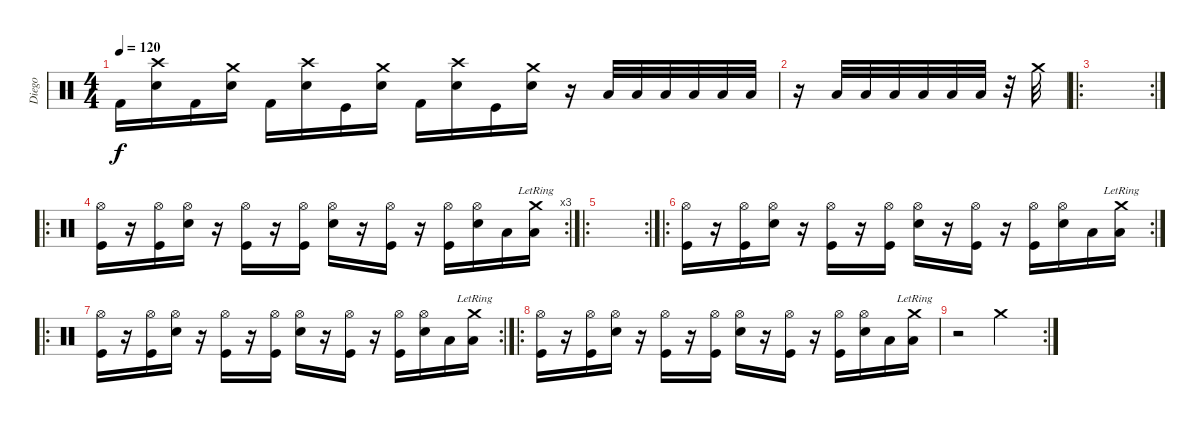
\track ("Diego" "Diego") {instrument percussion}
\staff {score}
\articulation defaults
\ts (4 4)
\tempo 120
\clef neutral
\ks c "Kick (hit) 2".16{dy f}
("Electric Snare (hit)" "Crash high (hit)").16 "Kick (hit) 2".16 ("Electric Snare (hit)" "Crash medium (hit)").16 "Kick (hit) 2".16 ("Electric Snare (hit)" "Crash high (hit)").16 "Kick (hit)".16 ("Electric Snare (hit)" "Crash medium (hit)").16 "Kick (hit) 2".16 ("Electric Snare (hit)" "Crash high (hit)").16 "Kick (hit)".16 ("Electric Snare (hit)" "Crash medium (hit)").16 r.16 "Low Tom (hit)".32 "Low Tom (hit)".32 "Low Tom (hit)".32 "Low Tom (hit)".32 "Low Tom (hit)".32 "Low Tom (hit)".32 |
r.16 "Low Floor Tom (hit)".32 "Low Floor Tom (hit)".32 "Low Floor Tom (hit)".32 "Low Floor Tom (hit)".32 "Low Floor Tom (hit)".32 "Low Floor Tom (hit)".32 r.32 "Crash medium (hit)".32 |
\ro
\rc 2
|
\ro
\rc 3
("Kick (hit)" "Hi-Hat (open)").16 r.16 ("Kick (hit)" "Hi-Hat (open)").16 ("Electric Snare (hit)" "Hi-Hat (open)").16 r.16 ("Kick (hit)" "Hi-Hat (open)").16 r.16 ("Kick (hit)" "Hi-Hat (open)").16 ("Electric Snare (hit)" "Hi-Hat (open)").16 r.16 ("Kick (hit)" "Hi-Hat (open)").16 r.16 ("Kick (hit)" "Hi-Hat (open)").16 ("Electric Snare (hit)" "Hi-Hat (open)").16 "Low Floor Tom (hit)".16 ("Low Tom (hit)" "Crash medium (hit)"{lr}).16 |
\ro
\rc 2
|
\ro
\rc 2
("Kick (hit)" "Hi-Hat (open)").16 r.16 ("Kick (hit)" "Hi-Hat (open)").16 ("Electric Snare (hit)" "Hi-Hat (open)").16 r.16 ("Kick (hit)" "Hi-Hat (open)").16 r.16 ("Kick (hit)" "Hi-Hat (open)").16 ("Electric Snare (hit)" "Hi-Hat (open)").16 r.16 ("Kick (hit)" "Hi-Hat (open)").16 r.16 ("Kick (hit)" "Hi-Hat (open)").16 ("Electric Snare (hit)" "Hi-Hat (open)").16 "Low Floor Tom (hit)".16 ("Low Tom (hit)" "Crash medium (hit)"{lr}).16 |
\ro
\rc 2
("Kick (hit)" "Hi-Hat (open)").16 r.16 ("Kick (hit)" "Hi-Hat (open)").16 ("Electric Snare (hit)" "Hi-Hat (open)").16 r.16 ("Kick (hit)" "Hi-Hat (open)").16 r.16 ("Kick (hit)" "Hi-Hat (open)").16 ("Electric Snare (hit)" "Hi-Hat (open)").16 r.16 ("Kick (hit)" "Hi-Hat (open)").16 r.16 ("Kick (hit)" "Hi-Hat (open)").16 ("Electric Snare (hit)" "Hi-Hat (open)").16 "Low Floor Tom (hit)".16 ("Low Tom (hit)" "Crash medium (hit)"{lr}).16 |
\ro
("Kick (hit)" "Hi-Hat (open)").16 r.16 ("Kick (hit)" "Hi-Hat (open)").16 ("Electric Snare (hit)" "Hi-Hat (open)").16 r.16 ("Kick (hit)" "Hi-Hat (open)").16 r.16 ("Kick (hit)" "Hi-Hat (open)").16 ("Electric Snare (hit)" "Hi-Hat (open)").16 r.16 ("Kick (hit)" "Hi-Hat (open)").16 r.16 ("Kick (hit)" "Hi-Hat (open)").16 ("Electric Snare (hit)" "Hi-Hat (open)").16 "Low Floor Tom (hit)".16 ("Low Tom (hit)" "Crash medium (hit)"{lr}).16 |
\rc 2
r.2 "Crash medium (hit)".2
